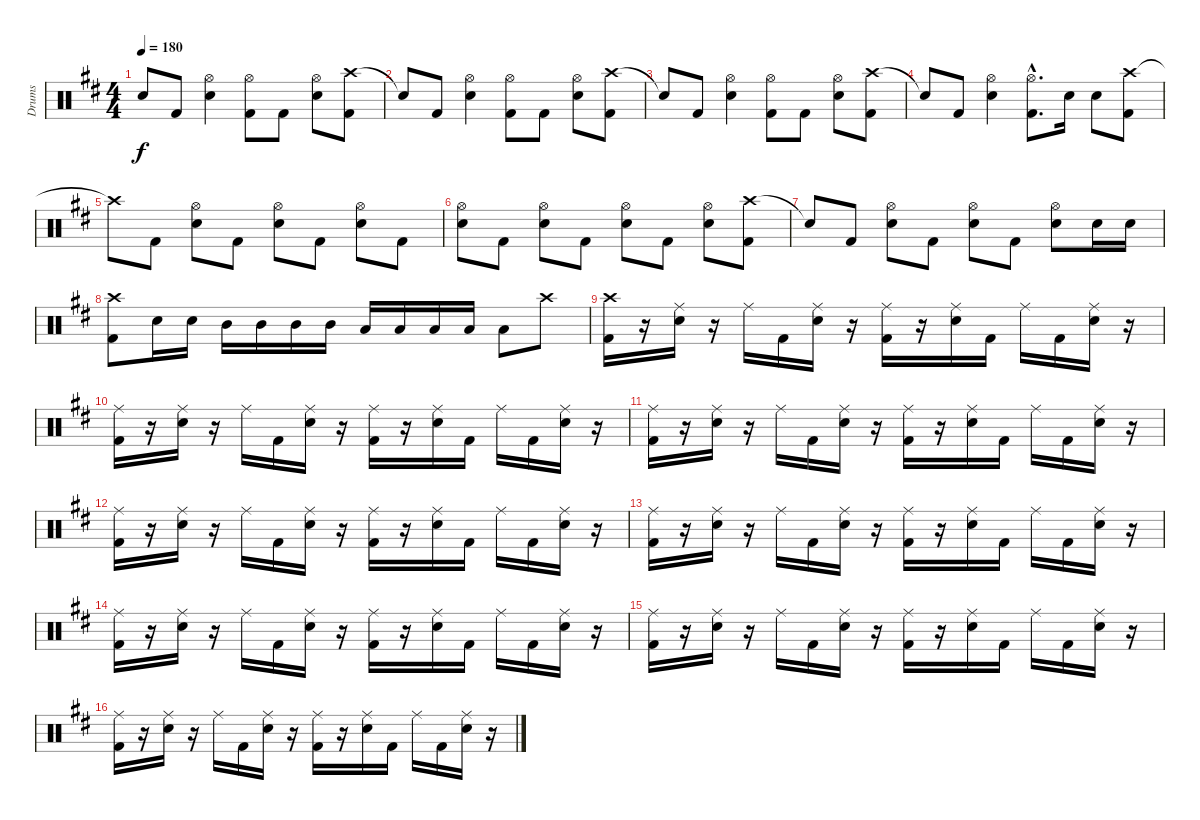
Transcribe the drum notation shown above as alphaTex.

\track ("Drums" "Drums") {instrument percussion}
\staff {score}
\articulation defaults
\ts (4 4)
\tempo 180
\clef neutral
\ks bminor "Snare (hit)"{t}.8{dy f} "Kick (hit) 2".8
("Hi-Hat (open)" "Electric Snare (hit)").4 ("Hi-Hat (open)" "Kick (hit) 2").8 "Kick (hit) 2".8 ("Hi-Hat (open)" "Electric Snare (hit)").8 ("Crash high (hit)" "Kick (hit) 2").8 |
"Snare (hit)"{t}.8 "Kick (hit) 2".8 ("Hi-Hat (open)" "Electric Snare (hit)").4 ("Hi-Hat (open)" "Kick (hit) 2").8 "Kick (hit) 2".8 ("Hi-Hat (open)" "Electric Snare (hit)").8 ("Crash high (hit)" "Kick (hit) 2").8 |
"Snare (hit)"{t}.8 "Kick (hit) 2".8 ("Hi-Hat (open)" "Electric Snare (hit)").4 ("Hi-Hat (open)" "Kick (hit) 2").8 "Kick (hit) 2".8 ("Hi-Hat (open)" "Electric Snare (hit)").8 ("Crash high (hit)" "Kick (hit) 2").8 |
"Snare (hit)"{t}.8 "Kick (hit) 2".8 ("Hi-Hat (open)" "Electric Snare (hit)").4 ("Hi-Hat (open)"{hac} "Kick (hit) 2"{hac}).8{d} "Electric Snare (hit)".16 "Electric Snare (hit)".8 ("Crash high (hit)" "Kick (hit) 2").8 |
"Crash high (hit)"{t}.8 "Kick (hit) 2".8 ("Hi-Hat (open)" "Electric Snare (hit)").8 "Kick (hit) 2".8 ("Hi-Hat (open)" "Electric Snare (hit)").8 "Kick (hit) 2".8 ("Hi-Hat (open)" "Electric Snare (hit)").8 "Kick (hit) 2".8 |
("Hi-Hat (open)" "Electric Snare (hit)").8 "Kick (hit) 2".8 ("Hi-Hat (open)" "Electric Snare (hit)").8 "Kick (hit) 2".8 ("Hi-Hat (open)" "Electric Snare (hit)").8 "Kick (hit) 2".8 ("Hi-Hat (open)" "Electric Snare (hit)").8 ("Crash high (hit)" "Kick (hit) 2").8 |
"Snare (hit)"{t}.8 "Kick (hit) 2".8 ("Hi-Hat (open)" "Electric Snare (hit)").8 "Kick (hit) 2".8 ("Hi-Hat (open)" "Electric Snare (hit)").8 "Kick (hit) 2".8 ("Hi-Hat (open)" "Electric Snare (hit)").8 "Electric Snare (hit)".16 "Electric Snare (hit)".16 |
("Crash high (hit)" "Kick (hit) 2").8 "Electric Snare (hit)".16 "Electric Snare (hit)".16 "Mid Tom (hit)".16 "Mid Tom (hit)".16 "Mid Tom (hit)".16 "Mid Tom (hit)".16 "Low Tom (hit)".16 "Low Tom (hit)".16 "Low Tom (hit)".16 "Low Tom (hit)".16 "Low Floor Tom (hit)".8 "Crash high (hit)".8 |
("Crash high (hit)" "Kick (hit) 2").16 r.16 ("Ride (middle)" "Electric Snare (hit)").16 r.16 "Ride (middle)".16 "Kick (hit) 2".16 ("Ride (middle)" "Electric Snare (hit)").16 r.16 ("Ride (middle)" "Kick (hit) 2").16 r.16 ("Ride (middle)" "Electric Snare (hit)").16 "Kick (hit) 2".16 "Ride (middle)".16 "Kick (hit) 2".16 ("Ride (middle)" "Electric Snare (hit)").16 r.16 |
("Ride (middle)" "Kick (hit) 2").16 r.16 ("Ride (middle)" "Electric Snare (hit)").16 r.16 "Ride (middle)".16 "Kick (hit) 2".16 ("Ride (middle)" "Electric Snare (hit)").16 r.16 ("Ride (middle)" "Kick (hit) 2").16 r.16 ("Ride (middle)" "Electric Snare (hit)").16 "Kick (hit) 2".16 "Ride (middle)".16 "Kick (hit) 2".16 ("Ride (middle)" "Electric Snare (hit)").16 r.16 |
("Ride (middle)" "Kick (hit) 2").16 r.16 ("Ride (middle)" "Electric Snare (hit)").16 r.16 "Ride (middle)".16 "Kick (hit) 2".16 ("Ride (middle)" "Electric Snare (hit)").16 r.16 ("Ride (middle)" "Kick (hit) 2").16 r.16 ("Ride (middle)" "Electric Snare (hit)").16 "Kick (hit) 2".16 "Ride (middle)".16 "Kick (hit) 2".16 ("Ride (middle)" "Electric Snare (hit)").16 r.16 |
("Ride (middle)" "Kick (hit) 2").16 r.16 ("Ride (middle)" "Electric Snare (hit)").16 r.16 "Ride (middle)".16 "Kick (hit) 2".16 ("Ride (middle)" "Electric Snare (hit)").16 r.16 ("Ride (middle)" "Kick (hit) 2").16 r.16 ("Ride (middle)" "Electric Snare (hit)").16 "Kick (hit) 2".16 "Ride (middle)".16 "Kick (hit) 2".16 ("Ride (middle)" "Electric Snare (hit)").16 r.16 |
("Ride (middle)" "Kick (hit) 2").16 r.16 ("Ride (middle)" "Electric Snare (hit)").16 r.16 "Ride (middle)".16 "Kick (hit) 2".16 ("Ride (middle)" "Electric Snare (hit)").16 r.16 ("Ride (middle)" "Kick (hit) 2").16 r.16 ("Ride (middle)" "Electric Snare (hit)").16 "Kick (hit) 2".16 "Ride (middle)".16 "Kick (hit) 2".16 ("Ride (middle)" "Electric Snare (hit)").16 r.16 |
("Ride (middle)" "Kick (hit) 2").16 r.16 ("Ride (middle)" "Electric Snare (hit)").16 r.16 "Ride (middle)".16 "Kick (hit) 2".16 ("Ride (middle)" "Electric Snare (hit)").16 r.16 ("Ride (middle)" "Kick (hit) 2").16 r.16 ("Ride (middle)" "Electric Snare (hit)").16 "Kick (hit) 2".16 "Ride (middle)".16 "Kick (hit) 2".16 ("Ride (middle)" "Electric Snare (hit)").16 r.16 |
("Ride (middle)" "Kick (hit) 2").16 r.16 ("Ride (middle)" "Electric Snare (hit)").16 r.16 "Ride (middle)".16 "Kick (hit) 2".16 ("Ride (middle)" "Electric Snare (hit)").16 r.16 ("Ride (middle)" "Kick (hit) 2").16 r.16 ("Ride (middle)" "Electric Snare (hit)").16 "Kick (hit) 2".16 "Ride (middle)".16 "Kick (hit) 2".16 ("Ride (middle)" "Electric Snare (hit)").16 r.16 |
("Ride (middle)" "Kick (hit) 2").16 r.16 ("Ride (middle)" "Electric Snare (hit)").16 r.16 "Ride (middle)".16 "Kick (hit) 2".16 ("Ride (middle)" "Electric Snare (hit)").16 r.16 ("Ride (middle)" "Kick (hit) 2").16 r.16 ("Ride (middle)" "Electric Snare (hit)").16 "Kick (hit) 2".16 "Ride (middle)".16 "Kick (hit) 2".16 ("Ride (middle)" "Electric Snare (hit)").16 r.16
